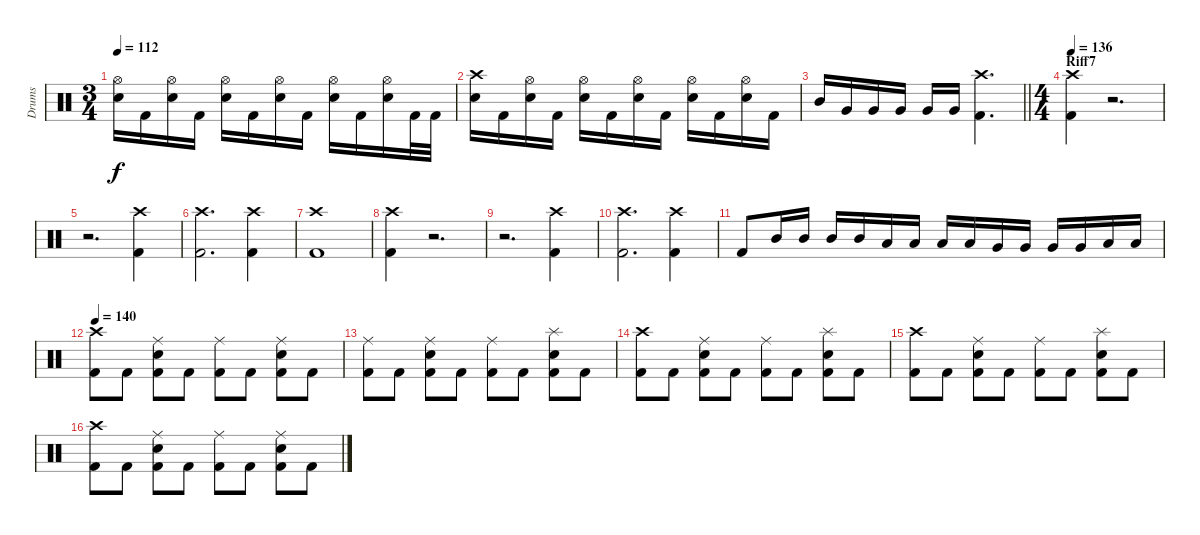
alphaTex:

\track ("Drums" "Drums") {instrument percussion}
\staff {score}
\articulation defaults
\ts (3 4)
\tempo 112
\clef neutral
\ks c
("Hi-Hat (open)" "Snare (hit) 2").16{dy f} "Kick (hit) 2".16 ("Hi-Hat (open)" "Snare (hit) 2").16 "Kick (hit) 2".16 ("Hi-Hat (open)" "Snare (hit) 2").16 "Kick (hit) 2".16 ("Hi-Hat (open)" "Snare (hit) 2").16 "Kick (hit) 2".16 ("Hi-Hat (open)" "Snare (hit) 2").16 "Kick (hit) 2".16 ("Hi-Hat (open)" "Snare (hit) 2").16 "Kick (hit) 2".32 "Kick (hit) 2".32 |
("Crash high (hit)" "Snare (hit) 2").16 "Kick (hit) 2".16 ("Hi-Hat (open)" "Snare (hit) 2").16 "Kick (hit) 2".16 ("Hi-Hat (open)" "Snare (hit) 2").16 "Kick (hit) 2".16 ("Hi-Hat (open)" "Snare (hit) 2").16 "Kick (hit) 2".16 ("Hi-Hat (open)" "Snare (hit) 2").16 "Kick (hit) 2".16 ("Hi-Hat (open)" "Snare (hit) 2").16 "Kick (hit) 2".16 |
\barLineRight lightlight "Mid Tom (hit)".16 "Very Low Tom (hit)".16 "Very Low Tom (hit)".16 "Very Low Tom (hit)".16 "Very Low Tom (hit)".16 "Very Low Tom (hit)".16
("Crash high (hit)" "Kick (hit) 2").4{d} |
\ts (4 4)
\section ("" "Riff7")
\tempo 136
("Crash high (hit)" "Kick (hit) 2").4 r.2{d} |
r.2{d} ("Crash high (hit)" "Kick (hit) 2").4 |
("Crash high (hit)" "Kick (hit) 2").2{d} ("Crash high (hit)" "Kick (hit) 2").4 |
("Crash high (hit)" "Kick (hit) 2").1 |
("Crash high (hit)" "Kick (hit) 2").4 r.2{d} |
r.2{d} ("Crash high (hit)" "Kick (hit) 2").4 |
("Crash high (hit)" "Kick (hit) 2").2{d} ("Crash high (hit)" "Kick (hit) 2").4 |
"Kick (hit) 2".8 "Mid Tom (hit)".16 "Mid Tom (hit)".16 "Mid Tom (hit)".16 "Mid Tom (hit)".16 "Low Tom (hit)".16 "Low Tom (hit)".16 "Low Tom (hit)".16 "Low Tom (hit)".16 "Very Low Tom (hit)".16 "Very Low Tom (hit)".16 "Very Low Tom (hit)".16 "Very Low Tom (hit)".16 "Low Floor Tom (hit)".16 "Low Floor Tom (hit)".16 |
\tempo 140
("Crash high (hit)" "Kick (hit) 2").8 "Kick (hit) 2".8 ("Ride (middle)" "Snare (hit) 2" "Kick (hit) 2").8 "Kick (hit) 2".8 ("Ride (middle)" "Kick (hit) 2").8 "Kick (hit) 2".8 ("Ride (middle)" "Snare (hit) 2" "Kick (hit) 2").8 "Kick (hit) 2".8 |
("Ride (middle)" "Kick (hit) 2").8 "Kick (hit) 2".8 ("Ride (middle)" "Snare (hit) 2" "Kick (hit) 2").8 "Kick (hit) 2".8 ("Ride (middle)" "Kick (hit) 2").8 "Kick (hit) 2".8 ("Splash (hit)" "Snare (hit) 2" "Kick (hit) 2").8 "Kick (hit) 2".8 |
("Crash high (hit)" "Kick (hit) 2").8 "Kick (hit) 2".8 ("Ride (middle)" "Snare (hit) 2" "Kick (hit) 2").8 "Kick (hit) 2".8 ("Ride (middle)" "Kick (hit) 2").8 "Kick (hit) 2".8 ("Splash (hit)" "Snare (hit) 2" "Kick (hit) 2").8 "Kick (hit) 2".8 |
("Crash high (hit)" "Kick (hit) 2").8 "Kick (hit) 2".8 ("Ride (middle)" "Snare (hit) 2" "Kick (hit) 2").8 "Kick (hit) 2".8 ("Ride (middle)" "Kick (hit) 2").8 "Kick (hit) 2".8 ("Splash (hit)" "Snare (hit) 2" "Kick (hit) 2").8 "Kick (hit) 2".8 |
("Crash high (hit)" "Kick (hit) 2").8 "Kick (hit) 2".8 ("Ride (middle)" "Snare (hit) 2" "Kick (hit) 2").8 "Kick (hit) 2".8 ("Ride (middle)" "Kick (hit) 2").8 "Kick (hit) 2".8 ("Ride (middle)" "Snare (hit) 2" "Kick (hit) 2").8 "Kick (hit) 2".8
